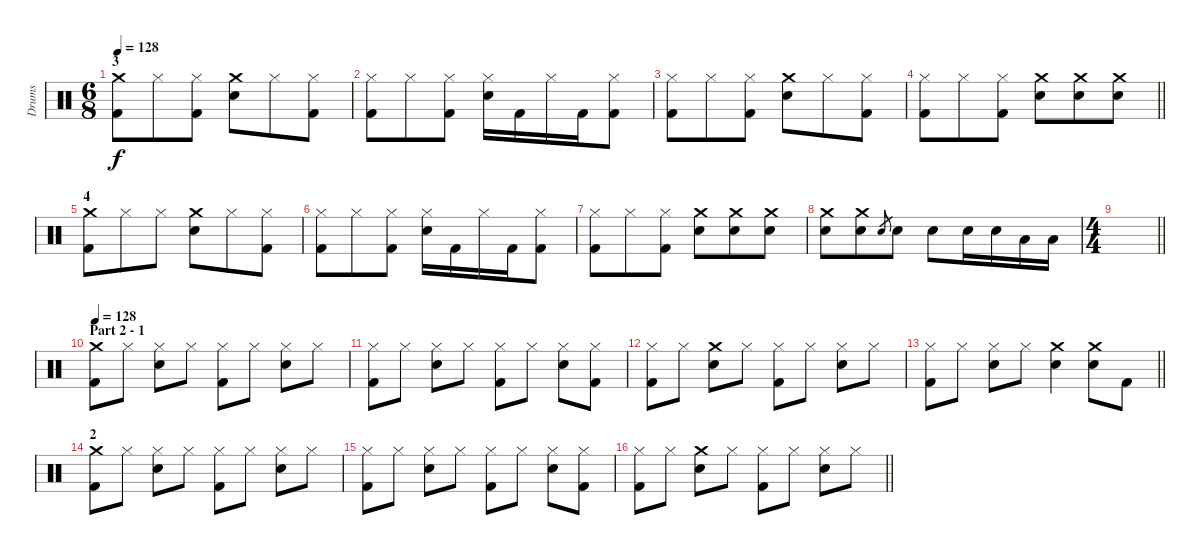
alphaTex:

\track ("Drums" "Drums") {instrument percussion}
\staff {score}
\articulation defaults
\ts (6 8)
\section ("" "3")
\tempo 128
\clef neutral
\ks c
("Kick (hit) 2" "Crash medium (hit)").8{dy f} "Hi-Hat (closed)".8 ("Kick (hit) 2" "Hi-Hat (closed)").8 ("Crash medium (hit)" "Snare (hit) 2").8 "Hi-Hat (closed)".8 ("Kick (hit) 2" "Hi-Hat (closed)").8 |
("Hi-Hat (closed)" "Kick (hit) 2").8 "Hi-Hat (closed)".8 ("Kick (hit) 2" "Hi-Hat (closed)").8 ("Snare (hit) 2" "Hi-Hat (closed)").16 "Kick (hit) 2".16 "Hi-Hat (closed)".16 "Kick (hit) 2".16 ("Kick (hit) 2" "Hi-Hat (closed)").8 |
("Hi-Hat (closed)" "Kick (hit) 2").8 "Hi-Hat (closed)".8 ("Hi-Hat (closed)" "Kick (hit) 2").8 ("Crash medium (hit)" "Snare (hit) 2").8 "Hi-Hat (closed)".8 ("Hi-Hat (closed)" "Kick (hit) 2").8 |
\barLineRight lightlight
("Hi-Hat (closed)" "Kick (hit) 2").8 "Hi-Hat (closed)".8 ("Kick (hit) 2" "Hi-Hat (closed)").8 ("Crash medium (hit)" "Snare (hit) 2").8 ("Crash medium (hit)" "Snare (hit) 2").8 ("Crash medium (hit)" "Snare (hit) 2").8 |
\section ("" "4")
("Crash medium (hit)" "Kick (hit) 2").8 "Hi-Hat (closed)".8 "Hi-Hat (closed)".8 ("Crash medium (hit)" "Snare (hit) 2").8 "Hi-Hat (closed)".8 ("Kick (hit) 2" "Hi-Hat (closed)").8 |
("Hi-Hat (closed)" "Kick (hit) 2").8 "Hi-Hat (closed)".8 ("Kick (hit) 2" "Hi-Hat (closed)").8 ("Snare (hit) 2" "Hi-Hat (closed)").16 "Kick (hit) 2".16 "Hi-Hat (closed)".16 "Kick (hit) 2".16 ("Kick (hit) 2" "Hi-Hat (closed)").8 |
("Hi-Hat (closed)" "Kick (hit) 2").8 "Hi-Hat (closed)".8 ("Kick (hit) 2" "Hi-Hat (closed)").8 ("Crash medium (hit)" "Snare (hit) 2").8 ("Crash medium (hit)" "Snare (hit) 2").8 ("Crash medium (hit)" "Snare (hit) 2").8 |
("Snare (hit) 2" "Crash medium (hit)").8 ("Snare (hit) 2" "Crash medium (hit)").8 "Snare (hit) 2".8{gr} "Snare (hit) 2".8 "Snare (hit) 2".8 "Snare (hit) 2".16 "Snare (hit) 2".16 "Low Tom (hit)".16 "Low Tom (hit)".16 |
\ts (4 4)
\barLineRight lightlight
|
\section ("" "Part 2 - 1")
\tempo 128
("Crash medium (hit)" "Kick (hit) 2").8 "Hi-Hat (closed)".8 ("Snare (hit) 2" "Hi-Hat (closed)").8 "Hi-Hat (closed)".8 ("Hi-Hat (closed)" "Kick (hit) 2").8 "Hi-Hat (closed)".8 ("Snare (hit) 2" "Hi-Hat (closed)").8 "Hi-Hat (closed)".8 |
("Hi-Hat (closed)" "Kick (hit) 2").8 "Hi-Hat (closed)".8 ("Snare (hit) 2" "Hi-Hat (closed)").8 "Hi-Hat (closed)".8 ("Hi-Hat (closed)" "Kick (hit) 2").8 "Hi-Hat (closed)".8 ("Snare (hit) 2" "Hi-Hat (closed)").8 ("Hi-Hat (closed)" "Kick (hit) 2").8 |
("Hi-Hat (closed)" "Kick (hit) 2").8 "Hi-Hat (closed)".8 ("Crash medium (hit)" "Snare (hit) 2").8 "Hi-Hat (closed)".8 ("Hi-Hat (closed)" "Kick (hit) 2").8 "Hi-Hat (closed)".8 ("Snare (hit) 2" "Hi-Hat (closed)").8 "Hi-Hat (closed)".8 |
\barLineRight lightlight
("Hi-Hat (closed)" "Kick (hit) 2").8 "Hi-Hat (closed)".8 ("Hi-Hat (closed)" "Snare (hit) 2").8 "Hi-Hat (closed)".8 ("Crash medium (hit)" "Snare (hit) 2").4 ("Crash medium (hit)" "Snare (hit) 2").8 "Kick (hit) 2".8 |
\section ("" "2")
("Crash medium (hit)" "Kick (hit) 2").8 "Hi-Hat (closed)".8 ("Snare (hit) 2" "Hi-Hat (closed)").8 "Hi-Hat (closed)".8 ("Hi-Hat (closed)" "Kick (hit) 2").8 "Hi-Hat (closed)".8 ("Snare (hit) 2" "Hi-Hat (closed)").8 "Hi-Hat (closed)".8 |
("Hi-Hat (closed)" "Kick (hit) 2").8 "Hi-Hat (closed)".8 ("Snare (hit) 2" "Hi-Hat (closed)").8 "Hi-Hat (closed)".8 ("Hi-Hat (closed)" "Kick (hit) 2").8 "Hi-Hat (closed)".8 ("Snare (hit) 2" "Hi-Hat (closed)").8 ("Hi-Hat (closed)" "Kick (hit) 2").8 |
\barLineRight lightlight
("Hi-Hat (closed)" "Kick (hit) 2").8 "Hi-Hat (closed)".8 ("Crash medium (hit)" "Snare (hit) 2").8 "Hi-Hat (closed)".8 ("Hi-Hat (closed)" "Kick (hit) 2").8 "Hi-Hat (closed)".8 ("Snare (hit) 2" "Hi-Hat (closed)").8 "Hi-Hat (closed)".8
